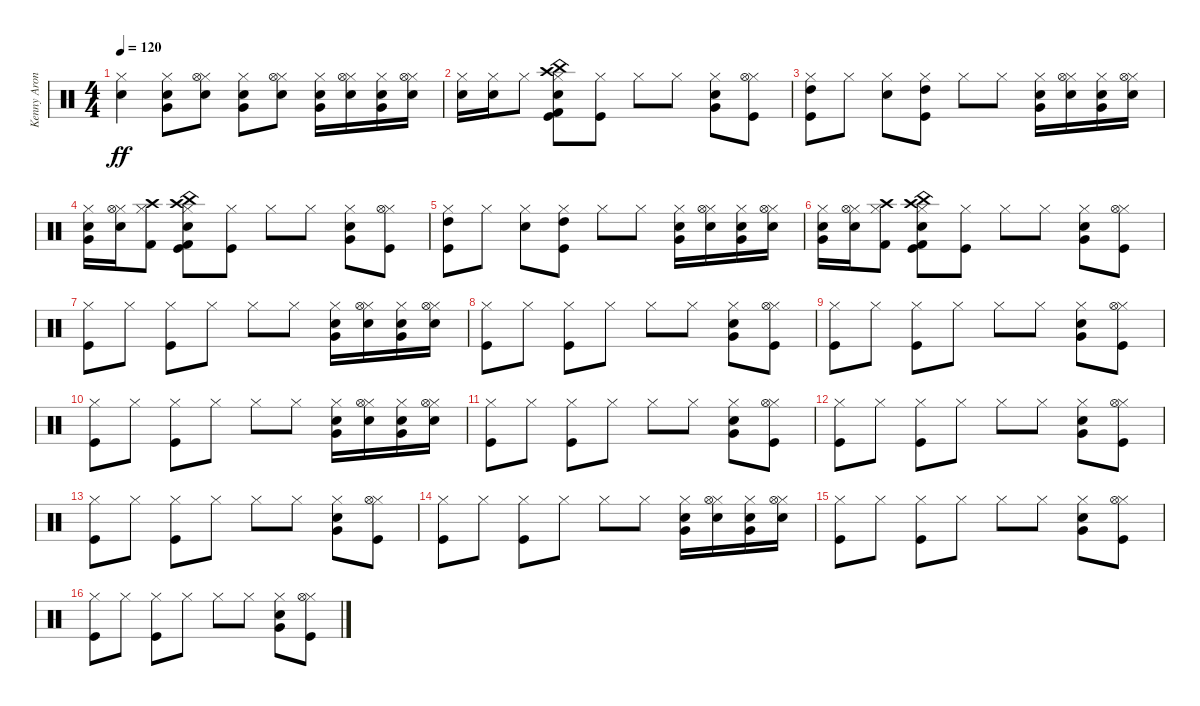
\track ("Kenny Aronoff" "Kenny Aron") {instrument percussion}
\staff {score}
\articulation defaults
\ts (4 4)
\tempo 120
\clef neutral
\ks c
("Snare (hit) 2" "Hi-Hat (closed)").4{dy ff} ("Snare (hit) 2" "Hi-Hat (closed)" "Very Low Tom (hit)").8 ("Snare (hit) 2" "Hi-Hat (closed)" "Hi-Hat (open)").8 ("Snare (hit) 2" "Hi-Hat (closed)" "Very Low Tom (hit)").8 ("Snare (hit) 2" "Hi-Hat (closed)" "Hi-Hat (open)").8 ("Snare (hit) 2" "Hi-Hat (closed)" "Very Low Tom (hit)").16 ("Snare (hit) 2" "Hi-Hat (closed)" "Hi-Hat (open)").16 ("Snare (hit) 2" "Hi-Hat (closed)" "Very Low Tom (hit)").16 ("Snare (hit) 2" "Hi-Hat (closed)" "Hi-Hat (open)").16 |
("Snare (hit) 2" "Hi-Hat (closed)").16 ("Snare (hit) 2" "Hi-Hat (closed)").16 "Hi-Hat (closed)".8 ("Snare (hit) 2" "Hi-Hat (closed)" "Kick (hit) 2" "Kick (hit)" "Crash high (hit)" "China (hit)").8 ("Kick (hit)" "Hi-Hat (closed)").8 "Hi-Hat (closed)".8 "Hi-Hat (closed)".8 ("Snare (hit) 2" "Hi-Hat (closed)" "Very Low Tom (hit)").8 ("Kick (hit)" "Hi-Hat (closed)" "Hi-Hat (open)").8 |
("Kick (hit)" "Hi-Hat (closed)" "High Tom (hit)").8 "Hi-Hat (closed)".8 ("Snare (hit) 2" "Hi-Hat (closed)").8 ("Kick (hit)" "Hi-Hat (closed)" "High Tom (hit)").8 "Hi-Hat (closed)".8 "Hi-Hat (closed)".8 ("Snare (hit) 2" "Hi-Hat (closed)" "Very Low Tom (hit)").16 ("Snare (hit) 2" "Hi-Hat (closed)" "Hi-Hat (open)").16 ("Snare (hit) 2" "Hi-Hat (closed)" "Very Low Tom (hit)").16 ("Snare (hit) 2" "Hi-Hat (closed)" "Hi-Hat (open)").16 |
("Snare (hit) 2" "Hi-Hat (closed)" "Very Low Tom (hit)").16 ("Snare (hit) 2" "Hi-Hat (closed)" "Hi-Hat (open)").16 ("Kick (hit) 2" "Hi-Hat (closed)" "Crash high (hit)").8 ("Snare (hit) 2" "Hi-Hat (closed)" "Kick (hit) 2" "Kick (hit)" "Crash high (hit)" "China (hit)").8 ("Kick (hit)" "Hi-Hat (closed)").8 "Hi-Hat (closed)".8 "Hi-Hat (closed)".8 ("Snare (hit) 2" "Hi-Hat (closed)" "Very Low Tom (hit)").8 ("Kick (hit)" "Hi-Hat (closed)" "Hi-Hat (open)").8 |
("Kick (hit)" "Hi-Hat (closed)" "High Tom (hit)").8 "Hi-Hat (closed)".8 ("Snare (hit) 2" "Hi-Hat (closed)").8 ("Kick (hit)" "Hi-Hat (closed)" "High Tom (hit)").8 "Hi-Hat (closed)".8 "Hi-Hat (closed)".8 ("Snare (hit) 2" "Hi-Hat (closed)" "Very Low Tom (hit)").16 ("Snare (hit) 2" "Hi-Hat (closed)" "Hi-Hat (open)").16 ("Snare (hit) 2" "Hi-Hat (closed)" "Very Low Tom (hit)").16 ("Snare (hit) 2" "Hi-Hat (closed)" "Hi-Hat (open)").16 |
("Snare (hit) 2" "Hi-Hat (closed)" "Very Low Tom (hit)").16 ("Snare (hit) 2" "Hi-Hat (closed)" "Hi-Hat (open)").16 ("Kick (hit) 2" "Hi-Hat (closed)" "Crash high (hit)").8 ("Snare (hit) 2" "Hi-Hat (closed)" "Kick (hit) 2" "Kick (hit)" "Crash high (hit)" "China (hit)").8 ("Kick (hit)" "Hi-Hat (closed)").8 "Hi-Hat (closed)".8 "Hi-Hat (closed)".8 ("Snare (hit) 2" "Hi-Hat (closed)" "Very Low Tom (hit)").8 ("Kick (hit)" "Hi-Hat (closed)" "Hi-Hat (open)").8 |
("Kick (hit)" "Hi-Hat (closed)").8 "Hi-Hat (closed)".8 ("Kick (hit)" "Hi-Hat (closed)").8 "Hi-Hat (closed)".8 "Hi-Hat (closed)".8 "Hi-Hat (closed)".8 ("Snare (hit) 2" "Hi-Hat (closed)" "Very Low Tom (hit)").16 ("Snare (hit) 2" "Hi-Hat (closed)" "Hi-Hat (open)").16 ("Snare (hit) 2" "Hi-Hat (closed)" "Very Low Tom (hit)").16 ("Snare (hit) 2" "Hi-Hat (closed)" "Hi-Hat (open)").16 |
("Kick (hit)" "Hi-Hat (closed)").8 "Hi-Hat (closed)".8 ("Kick (hit)" "Hi-Hat (closed)").8 "Hi-Hat (closed)".8 "Hi-Hat (closed)".8 "Hi-Hat (closed)".8 ("Snare (hit) 2" "Hi-Hat (closed)" "Very Low Tom (hit)").8 ("Kick (hit)" "Hi-Hat (closed)" "Hi-Hat (open)").8 |
("Kick (hit)" "Hi-Hat (closed)").8 "Hi-Hat (closed)".8 ("Kick (hit)" "Hi-Hat (closed)").8 "Hi-Hat (closed)".8 "Hi-Hat (closed)".8 "Hi-Hat (closed)".8 ("Snare (hit) 2" "Hi-Hat (closed)" "Very Low Tom (hit)").8 ("Kick (hit)" "Hi-Hat (closed)" "Hi-Hat (open)").8 |
("Kick (hit)" "Hi-Hat (closed)").8 "Hi-Hat (closed)".8 ("Kick (hit)" "Hi-Hat (closed)").8 "Hi-Hat (closed)".8 "Hi-Hat (closed)".8 "Hi-Hat (closed)".8 ("Snare (hit) 2" "Hi-Hat (closed)" "Very Low Tom (hit)").16 ("Snare (hit) 2" "Hi-Hat (closed)" "Hi-Hat (open)").16 ("Snare (hit) 2" "Hi-Hat (closed)" "Very Low Tom (hit)").16 ("Snare (hit) 2" "Hi-Hat (closed)" "Hi-Hat (open)").16 |
("Kick (hit)" "Hi-Hat (closed)").8 "Hi-Hat (closed)".8 ("Kick (hit)" "Hi-Hat (closed)").8 "Hi-Hat (closed)".8 "Hi-Hat (closed)".8 "Hi-Hat (closed)".8 ("Snare (hit) 2" "Hi-Hat (closed)" "Very Low Tom (hit)").8 ("Kick (hit)" "Hi-Hat (closed)" "Hi-Hat (open)").8 |
("Kick (hit)" "Hi-Hat (closed)").8 "Hi-Hat (closed)".8 ("Kick (hit)" "Hi-Hat (closed)").8 "Hi-Hat (closed)".8 "Hi-Hat (closed)".8 "Hi-Hat (closed)".8 ("Snare (hit) 2" "Hi-Hat (closed)" "Very Low Tom (hit)").8 ("Kick (hit)" "Hi-Hat (closed)" "Hi-Hat (open)").8 |
("Kick (hit)" "Hi-Hat (closed)").8 "Hi-Hat (closed)".8 ("Kick (hit)" "Hi-Hat (closed)").8 "Hi-Hat (closed)".8 "Hi-Hat (closed)".8 "Hi-Hat (closed)".8 ("Snare (hit) 2" "Hi-Hat (closed)" "Very Low Tom (hit)").8 ("Kick (hit)" "Hi-Hat (closed)" "Hi-Hat (open)").8 |
("Kick (hit)" "Hi-Hat (closed)").8 "Hi-Hat (closed)".8 ("Kick (hit)" "Hi-Hat (closed)").8 "Hi-Hat (closed)".8 "Hi-Hat (closed)".8 "Hi-Hat (closed)".8 ("Snare (hit) 2" "Hi-Hat (closed)" "Very Low Tom (hit)").16 ("Snare (hit) 2" "Hi-Hat (closed)" "Hi-Hat (open)").16 ("Snare (hit) 2" "Hi-Hat (closed)" "Very Low Tom (hit)").16 ("Snare (hit) 2" "Hi-Hat (closed)" "Hi-Hat (open)").16 |
("Kick (hit)" "Hi-Hat (closed)").8 "Hi-Hat (closed)".8 ("Kick (hit)" "Hi-Hat (closed)").8 "Hi-Hat (closed)".8 "Hi-Hat (closed)".8 "Hi-Hat (closed)".8 ("Snare (hit) 2" "Hi-Hat (closed)" "Very Low Tom (hit)").8 ("Kick (hit)" "Hi-Hat (closed)" "Hi-Hat (open)").8 |
("Kick (hit)" "Hi-Hat (closed)").8 "Hi-Hat (closed)".8 ("Kick (hit)" "Hi-Hat (closed)").8 "Hi-Hat (closed)".8 "Hi-Hat (closed)".8 "Hi-Hat (closed)".8 ("Snare (hit) 2" "Hi-Hat (closed)" "Very Low Tom (hit)").8 ("Kick (hit)" "Hi-Hat (closed)" "Hi-Hat (open)").8
